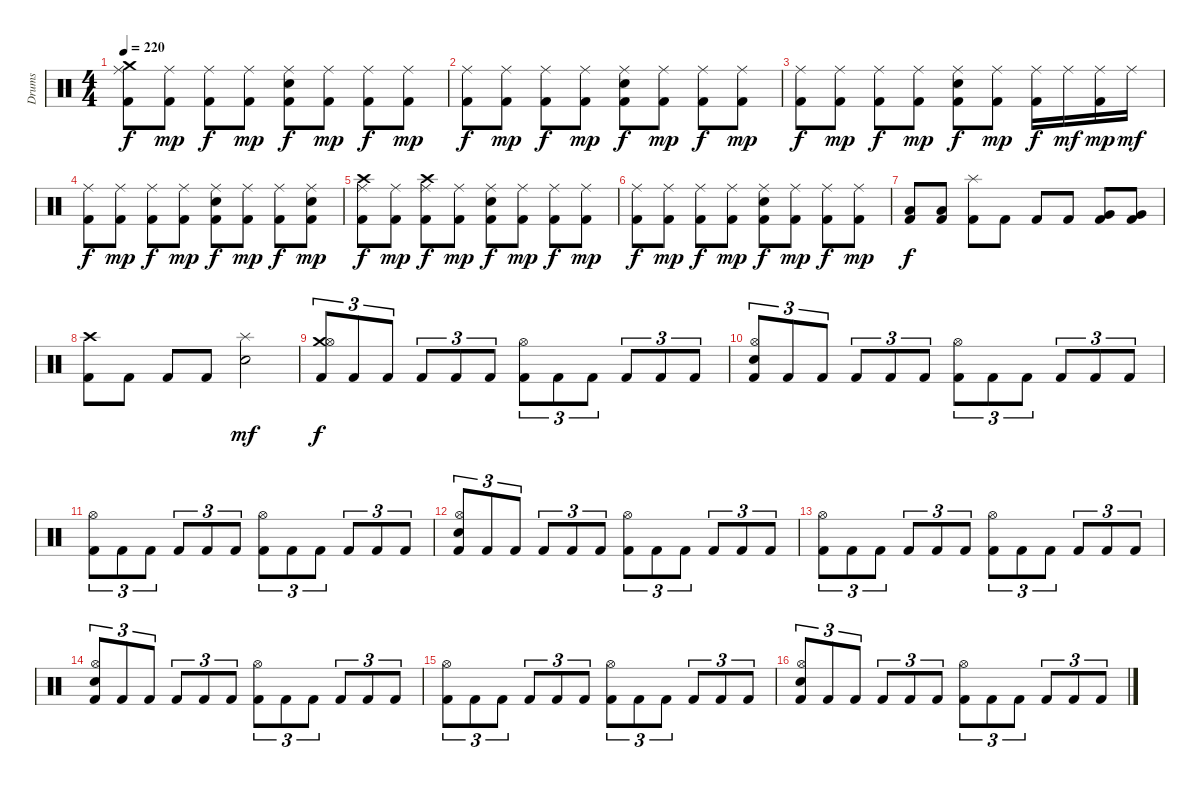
\bracketExtendMode groupsimilarinstruments
\otherSystemsTrackNameOrientation horizontal
\track ("Drumkit" "Drums") {instrument percussion}
\staff {score}
\articulation defaults
\ts (4 4)
\tempo 220
\clef neutral
\ks c
("Crash medium (hit)" "Ride (middle)" "Kick (hit) 2").8{dy f beam Down} ("Ride (middle)" "Kick (hit) 2").8{dy mp beam Down} ("Ride (middle)" "Kick (hit) 2").8{dy f beam Down} ("Ride (middle)" "Kick (hit) 2").8{dy mp beam Down} ("Ride (middle)" "Snare (hit) 2" "Kick (hit) 2").8{dy f beam Down} ("Ride (middle)" "Kick (hit) 2").8{dy mp beam Down} ("Ride (middle)" "Kick (hit) 2").8{dy f beam Down} ("Ride (middle)" "Kick (hit) 2").8{dy mp beam Down} |
("Ride (middle)" "Kick (hit) 2").8{dy f beam Down} ("Ride (middle)" "Kick (hit) 2").8{dy mp beam Down} ("Ride (middle)" "Kick (hit) 2").8{dy f beam Down} ("Ride (middle)" "Kick (hit) 2").8{dy mp beam Down} ("Ride (middle)" "Snare (hit) 2" "Kick (hit) 2").8{dy f beam Down} ("Ride (middle)" "Kick (hit) 2").8{dy mp beam Down} ("Ride (middle)" "Kick (hit) 2").8{dy f beam Down} ("Ride (middle)" "Kick (hit) 2").8{dy mp beam Down} |
("Ride (middle)" "Kick (hit) 2").8{dy f beam Down} ("Ride (middle)" "Kick (hit) 2").8{dy mp beam Down} ("Ride (middle)" "Kick (hit) 2").8{dy f beam Down} ("Ride (middle)" "Kick (hit) 2").8{dy mp beam Down} ("Ride (middle)" "Snare (hit) 2" "Kick (hit) 2").8{dy f beam Down} ("Ride (middle)" "Kick (hit) 2").8{dy mp beam Down} ("Ride (middle)" "Kick (hit) 2").16{dy f beam Down} "Ride (middle)".16{dy mf beam Down} ("Ride (middle)" "Kick (hit) 2").16{dy mp beam Down} "Ride (middle)".16{dy mf beam Down} |
("Ride (middle)" "Kick (hit) 2").8{dy f beam Down} ("Ride (middle)" "Kick (hit) 2").8{dy mp beam Down} ("Ride (middle)" "Kick (hit) 2").8{dy f beam Down} ("Ride (middle)" "Kick (hit) 2").8{dy mp beam Down} ("Ride (middle)" "Snare (hit) 2" "Kick (hit) 2").8{dy f beam Down} ("Ride (middle)" "Kick (hit) 2").8{dy mp beam Down} ("Ride (middle)" "Kick (hit) 2").8{dy f beam Down} ("Ride (middle)" "Snare (hit) 2" "Kick (hit) 2").8{dy mp beam Down} |
("Crash high (hit)" "Ride (middle)" "Kick (hit) 2").8{dy f beam Down} ("Ride (middle)" "Kick (hit) 2").8{dy mp beam Down} ("Crash high (hit)" "Ride (middle)" "Kick (hit) 2").8{dy f beam Down} ("Ride (middle)" "Kick (hit) 2").8{dy mp beam Down} ("Ride (middle)" "Snare (hit) 2" "Kick (hit) 2").8{dy f beam Down} ("Ride (middle)" "Kick (hit) 2").8{dy mp beam Down} ("Ride (middle)" "Kick (hit) 2").8{dy f beam Down} ("Ride (middle)" "Kick (hit) 2").8{dy mp beam Down} |
("Ride (middle)" "Kick (hit) 2").8{dy f beam Down} ("Ride (middle)" "Kick (hit) 2").8{dy mp beam Down} ("Ride (middle)" "Kick (hit) 2").8{dy f beam Down} ("Ride (middle)" "Kick (hit) 2").8{dy mp beam Down} ("Ride (middle)" "Snare (hit) 2" "Kick (hit) 2").8{dy f beam Down} ("Ride (middle)" "Kick (hit) 2").8{dy mp beam Down} ("Ride (middle)" "Kick (hit) 2").8{dy f beam Down} ("Ride (middle)" "Kick (hit) 2").8{dy mp beam Down} |
("Low Tom (hit)" "Kick (hit) 2").8{dy f beam Up} ("Low Tom (hit)" "Kick (hit) 2").8{beam Up} ("Splash (hit)" "Kick (hit) 2").8{beam Down} "Kick (hit) 2".8{beam Down} "Kick (hit) 2".8{beam Up} "Kick (hit) 2".8{beam Up} ("Very Low Tom (hit)" "Kick (hit) 2").8{beam Up} ("Very Low Tom (hit)" "Kick (hit) 2").8{beam Up} |
("Crash high (hit)" "Kick (hit) 2").8{beam Down} "Kick (hit) 2".8{beam Down} "Kick (hit) 2".8{beam Up} "Kick (hit) 2".8{beam Up} ("Splash (hit)" "Snare (hit) 2").2{dy mf beam Down} |
("Crash medium (hit)" "Hi-Hat (open)" "Kick (hit) 2").8{tu (3 2) dy f beam Up} "Kick (hit) 2".8{tu (3 2) beam Up} "Kick (hit) 2".8{tu (3 2) beam Up} "Kick (hit) 2".8{tu (3 2) beam Up} "Kick (hit) 2".8{tu (3 2) beam Up} "Kick (hit) 2".8{tu (3 2) beam Up} ("Hi-Hat (open)" "Kick (hit) 2").8{tu (3 2) beam Down} "Kick (hit) 2".8{tu (3 2) beam Down} "Kick (hit) 2".8{tu (3 2) beam Down} "Kick (hit) 2".8{tu (3 2) beam Up} "Kick (hit) 2".8{tu (3 2) beam Up} "Kick (hit) 2".8{tu (3 2) beam Up} |
("Hi-Hat (open)" "Snare (hit) 2" "Kick (hit) 2").8{tu (3 2) beam Up} "Kick (hit) 2".8{tu (3 2) beam Up} "Kick (hit) 2".8{tu (3 2) beam Up} "Kick (hit) 2".8{tu (3 2) beam Up} "Kick (hit) 2".8{tu (3 2) beam Up} "Kick (hit) 2".8{tu (3 2) beam Up} ("Hi-Hat (open)" "Kick (hit) 2").8{tu (3 2) beam Down} "Kick (hit) 2".8{tu (3 2) beam Down} "Kick (hit) 2".8{tu (3 2) beam Down} "Kick (hit) 2".8{tu (3 2) beam Up} "Kick (hit) 2".8{tu (3 2) beam Up} "Kick (hit) 2".8{tu (3 2) beam Up} |
("Hi-Hat (open)" "Kick (hit) 2").8{tu (3 2) beam Down} "Kick (hit) 2".8{tu (3 2) beam Down} "Kick (hit) 2".8{tu (3 2) beam Down} "Kick (hit) 2".8{tu (3 2) beam Up} "Kick (hit) 2".8{tu (3 2) beam Up} "Kick (hit) 2".8{tu (3 2) beam Up} ("Hi-Hat (open)" "Kick (hit) 2").8{tu (3 2) beam Down} "Kick (hit) 2".8{tu (3 2) beam Down} "Kick (hit) 2".8{tu (3 2) beam Down} "Kick (hit) 2".8{tu (3 2) beam Up} "Kick (hit) 2".8{tu (3 2) beam Up} "Kick (hit) 2".8{tu (3 2) beam Up} |
("Hi-Hat (open)" "Snare (hit) 2" "Kick (hit) 2").8{tu (3 2) beam Up} "Kick (hit) 2".8{tu (3 2) beam Up} "Kick (hit) 2".8{tu (3 2) beam Up} "Kick (hit) 2".8{tu (3 2) beam Up} "Kick (hit) 2".8{tu (3 2) beam Up} "Kick (hit) 2".8{tu (3 2) beam Up} ("Hi-Hat (open)" "Kick (hit) 2").8{tu (3 2) beam Down} "Kick (hit) 2".8{tu (3 2) beam Down} "Kick (hit) 2".8{tu (3 2) beam Down} "Kick (hit) 2".8{tu (3 2) beam Up} "Kick (hit) 2".8{tu (3 2) beam Up} "Kick (hit) 2".8{tu (3 2) beam Up} |
("Hi-Hat (open)" "Kick (hit) 2").8{tu (3 2) beam Down} "Kick (hit) 2".8{tu (3 2) beam Down} "Kick (hit) 2".8{tu (3 2) beam Down} "Kick (hit) 2".8{tu (3 2) beam Up} "Kick (hit) 2".8{tu (3 2) beam Up} "Kick (hit) 2".8{tu (3 2) beam Up} ("Hi-Hat (open)" "Kick (hit) 2").8{tu (3 2) beam Down} "Kick (hit) 2".8{tu (3 2) beam Down} "Kick (hit) 2".8{tu (3 2) beam Down} "Kick (hit) 2".8{tu (3 2) beam Up} "Kick (hit) 2".8{tu (3 2) beam Up} "Kick (hit) 2".8{tu (3 2) beam Up} |
("Hi-Hat (open)" "Snare (hit) 2" "Kick (hit) 2").8{tu (3 2) beam Up} "Kick (hit) 2".8{tu (3 2) beam Up} "Kick (hit) 2".8{tu (3 2) beam Up} "Kick (hit) 2".8{tu (3 2) beam Up} "Kick (hit) 2".8{tu (3 2) beam Up} "Kick (hit) 2".8{tu (3 2) beam Up} ("Hi-Hat (open)" "Kick (hit) 2").8{tu (3 2) beam Down} "Kick (hit) 2".8{tu (3 2) beam Down} "Kick (hit) 2".8{tu (3 2) beam Down} "Kick (hit) 2".8{tu (3 2) beam Up} "Kick (hit) 2".8{tu (3 2) beam Up} "Kick (hit) 2".8{tu (3 2) beam Up} |
("Hi-Hat (open)" "Kick (hit) 2").8{tu (3 2) beam Down} "Kick (hit) 2".8{tu (3 2) beam Down} "Kick (hit) 2".8{tu (3 2) beam Down} "Kick (hit) 2".8{tu (3 2) beam Up} "Kick (hit) 2".8{tu (3 2) beam Up} "Kick (hit) 2".8{tu (3 2) beam Up} ("Hi-Hat (open)" "Kick (hit) 2").8{tu (3 2) beam Down} "Kick (hit) 2".8{tu (3 2) beam Down} "Kick (hit) 2".8{tu (3 2) beam Down} "Kick (hit) 2".8{tu (3 2) beam Up} "Kick (hit) 2".8{tu (3 2) beam Up} "Kick (hit) 2".8{tu (3 2) beam Up} |
("Hi-Hat (open)" "Snare (hit) 2" "Kick (hit) 2").8{tu (3 2) beam Up} "Kick (hit) 2".8{tu (3 2) beam Up} "Kick (hit) 2".8{tu (3 2) beam Up} "Kick (hit) 2".8{tu (3 2) beam Up} "Kick (hit) 2".8{tu (3 2) beam Up} "Kick (hit) 2".8{tu (3 2) beam Up} ("Hi-Hat (open)" "Kick (hit) 2").8{tu (3 2) beam Down} "Kick (hit) 2".8{tu (3 2) beam Down} "Kick (hit) 2".8{tu (3 2) beam Down} "Kick (hit) 2".8{tu (3 2) beam Up} "Kick (hit) 2".8{tu (3 2) beam Up} "Kick (hit) 2".8{tu (3 2) beam Up}
